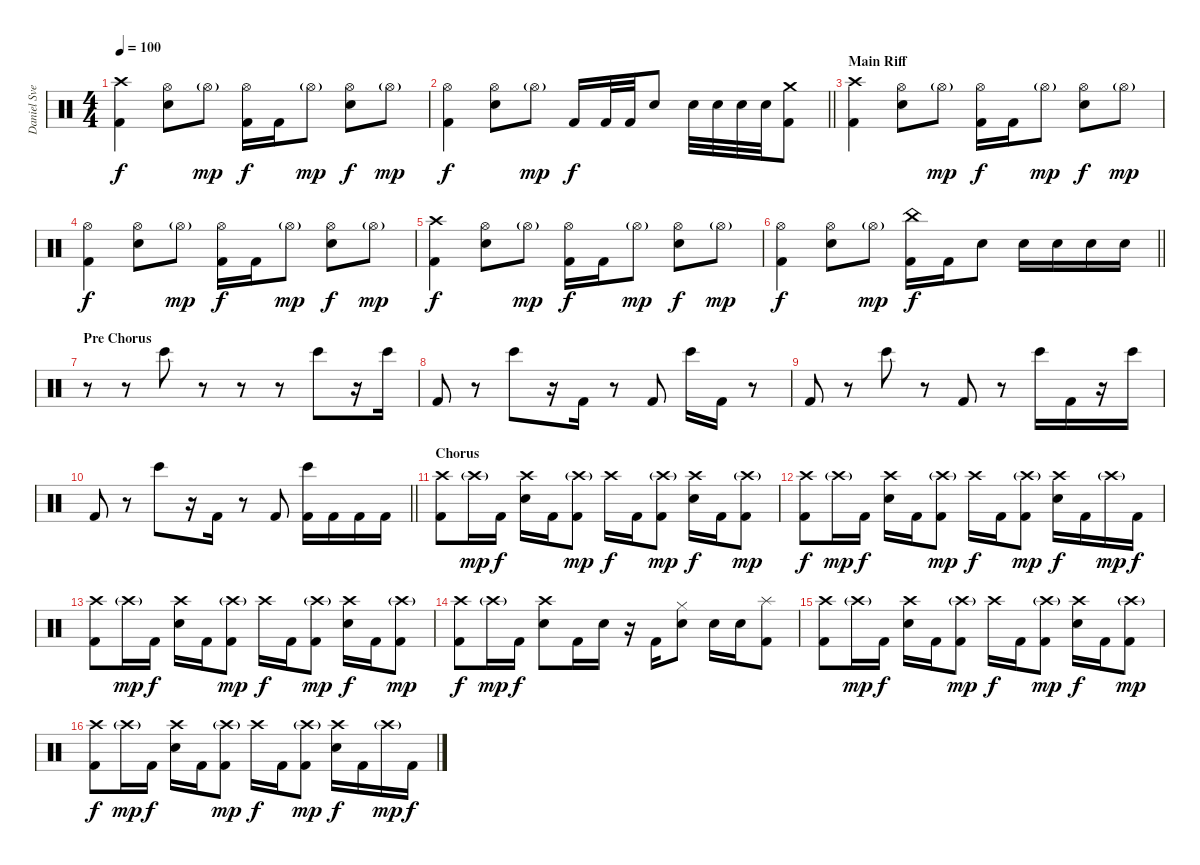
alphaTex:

\track ("Daniel Svensson" "Daniel Sve") {instrument percussion}
\staff {score}
\articulation defaults
\ts (4 4)
\tempo 100
\clef neutral
\ks c
("Crash high (hit)" "Kick (hit) 2").4{dy f} ("Hi-Hat (open)" "Snare (hit) 2").8 "Hi-Hat (open)"{g}.8{dy mp} ("Hi-Hat (open)" "Kick (hit) 2").16{dy f} "Kick (hit) 2".16 "Hi-Hat (open)"{g}.8{dy mp} ("Hi-Hat (open)" "Snare (hit) 2").8{dy f} "Hi-Hat (open)"{g}.8{dy mp} |
\barLineRight lightlight
("Hi-Hat (open)" "Kick (hit) 2").4{dy f} ("Hi-Hat (open)" "Snare (hit) 2").8 "Hi-Hat (open)"{g}.8{dy mp} "Kick (hit) 2".16{dy f} "Kick (hit) 2".32 "Kick (hit) 2".32 "Snare (hit) 2".8 "Snare (hit) 2".32 "Snare (hit) 2".32 "Snare (hit) 2".32 "Snare (hit) 2".32 ("Crash medium (hit)" "Kick (hit) 2").8 |
\section ("" "Main Riff")
("Crash high (hit)" "Kick (hit) 2").4 ("Hi-Hat (open)" "Snare (hit) 2").8 "Hi-Hat (open)"{g}.8{dy mp} ("Hi-Hat (open)" "Kick (hit) 2").16{dy f} "Kick (hit) 2".16 "Hi-Hat (open)"{g}.8{dy mp} ("Hi-Hat (open)" "Snare (hit) 2").8{dy f} "Hi-Hat (open)"{g}.8{dy mp} |
("Hi-Hat (open)" "Kick (hit) 2").4{dy f} ("Hi-Hat (open)" "Snare (hit) 2").8 "Hi-Hat (open)"{g}.8{dy mp} ("Hi-Hat (open)" "Kick (hit) 2").16{dy f} "Kick (hit) 2".16 "Hi-Hat (open)"{g}.8{dy mp} ("Hi-Hat (open)" "Snare (hit) 2").8{dy f} "Hi-Hat (open)"{g}.8{dy mp} |
("Crash high (hit)" "Kick (hit) 2").4{dy f} ("Hi-Hat (open)" "Snare (hit) 2").8 "Hi-Hat (open)"{g}.8{dy mp} ("Hi-Hat (open)" "Kick (hit) 2").16{dy f} "Kick (hit) 2".16 "Hi-Hat (open)"{g}.8{dy mp} ("Hi-Hat (open)" "Snare (hit) 2").8{dy f} "Hi-Hat (open)"{g}.8{dy mp} |
\barLineRight lightlight
("Hi-Hat (open)" "Kick (hit) 2").4{dy f} ("Hi-Hat (open)" "Snare (hit) 2").8 "Hi-Hat (open)"{g}.8{dy mp} ("China (hit)" "Kick (hit) 2").16{dy f} "Kick (hit) 2".16 "Snare (hit) 2".8 "Snare (hit) 2".16 "Snare (hit) 2".16 "Snare (hit) 2".16 "Snare (hit) 2".16 |
\section ("" "Pre Chorus")
r.8{volume 8} r.8 "Bongo High (hit)".8 r.8 r.8 r.8 "Bongo High (hit)".8{volume 10} r.16 "Bongo High (hit)".16 |
"Kick (hit) 2".8 r.8 "Bongo High (hit)".8 r.16 "Kick (hit) 2".16 r.8 "Kick (hit) 2".8 "Bongo High (hit)".16 "Kick (hit) 2".16 r.8 |
"Kick (hit) 2".8 r.8 "Bongo High (hit)".8 r.8 "Kick (hit) 2".8 r.8 "Bongo High (hit)".16 "Kick (hit) 2".16 r.16 "Bongo High (hit)".16 |
\barLineRight lightlight "Kick (hit) 2".8
r.8 "Bongo High (hit)".8 r.16 "Kick (hit) 2".16 r.8{volume 14} "Kick (hit) 2".8 ("Bongo High (hit)" "Kick (hit) 2").16 "Kick (hit) 2".16 "Kick (hit) 2".16 "Kick (hit) 2".16 |
\section ("" "Chorus")
("Crash high (hit)" "Kick (hit) 2").8 "Crash high (hit)"{g}.16{dy mp} "Kick (hit) 2".16{dy f} ("Crash high (hit)" "Snare (hit) 2").16 "Kick (hit) 2".16 ("Crash high (hit)"{g} "Kick (hit) 2").8{dy mp} "Crash high (hit)".16{dy f} "Kick (hit) 2".16 ("Crash high (hit)"{g} "Kick (hit) 2").8{dy mp} ("Crash high (hit)" "Snare (hit) 2").16{dy f} "Kick (hit) 2".16 ("Crash high (hit)"{g} "Kick (hit) 2").8{dy mp} |
("Crash high (hit)" "Kick (hit) 2").8{dy f} "Crash high (hit)"{g}.16{dy mp} "Kick (hit) 2".16{dy f} ("Crash high (hit)" "Snare (hit) 2").16 "Kick (hit) 2".16 ("Crash high (hit)"{g} "Kick (hit) 2").8{dy mp} "Crash high (hit)".16{dy f} "Kick (hit) 2".16 ("Crash high (hit)"{g} "Kick (hit) 2").8{dy mp} ("Crash high (hit)" "Snare (hit) 2").16{dy f} "Kick (hit) 2".16 "Crash high (hit)"{g}.16{dy mp} "Kick (hit) 2".16{dy f} |
("Crash high (hit)" "Kick (hit) 2").8 "Crash high (hit)"{g}.16{dy mp} "Kick (hit) 2".16{dy f} ("Crash high (hit)" "Snare (hit) 2").16 "Kick (hit) 2".16 ("Crash high (hit)"{g} "Kick (hit) 2").8{dy mp} "Crash high (hit)".16{dy f} "Kick (hit) 2".16 ("Crash high (hit)"{g} "Kick (hit) 2").8{dy mp} ("Crash high (hit)" "Snare (hit) 2").16{dy f} "Kick (hit) 2".16 ("Crash high (hit)"{g} "Kick (hit) 2").8{dy mp} |
("Crash high (hit)" "Kick (hit) 2").8{dy f} "Crash high (hit)"{g}.16{dy mp} "Kick (hit) 2".16{dy f} ("Crash high (hit)" "Snare (hit) 2").8 "Kick (hit) 2".16 "Snare (hit) 2".16 r.16 "Kick (hit) 2".16 ("Hi-Hat (closed)" "Snare (hit) 2").8 "Snare (hit) 2".16 "Snare (hit) 2".16 ("Splash (hit)" "Kick (hit) 2").8 |
("Crash high (hit)" "Kick (hit) 2").8 "Crash high (hit)"{g}.16{dy mp} "Kick (hit) 2".16{dy f} ("Crash high (hit)" "Snare (hit) 2").16 "Kick (hit) 2".16 ("Crash high (hit)"{g} "Kick (hit) 2").8{dy mp} "Crash high (hit)".16{dy f} "Kick (hit) 2".16 ("Crash high (hit)"{g} "Kick (hit) 2").8{dy mp} ("Crash high (hit)" "Snare (hit) 2").16{dy f} "Kick (hit) 2".16 ("Crash high (hit)"{g} "Kick (hit) 2").8{dy mp} |
("Crash high (hit)" "Kick (hit) 2").8{dy f} "Crash high (hit)"{g}.16{dy mp} "Kick (hit) 2".16{dy f} ("Crash high (hit)" "Snare (hit) 2").16 "Kick (hit) 2".16 ("Crash high (hit)"{g} "Kick (hit) 2").8{dy mp} "Crash high (hit)".16{dy f} "Kick (hit) 2".16 ("Crash high (hit)"{g} "Kick (hit) 2").8{dy mp} ("Crash high (hit)" "Snare (hit) 2").16{dy f} "Kick (hit) 2".16 "Crash high (hit)"{g}.16{dy mp} "Kick (hit) 2".16{dy f}
